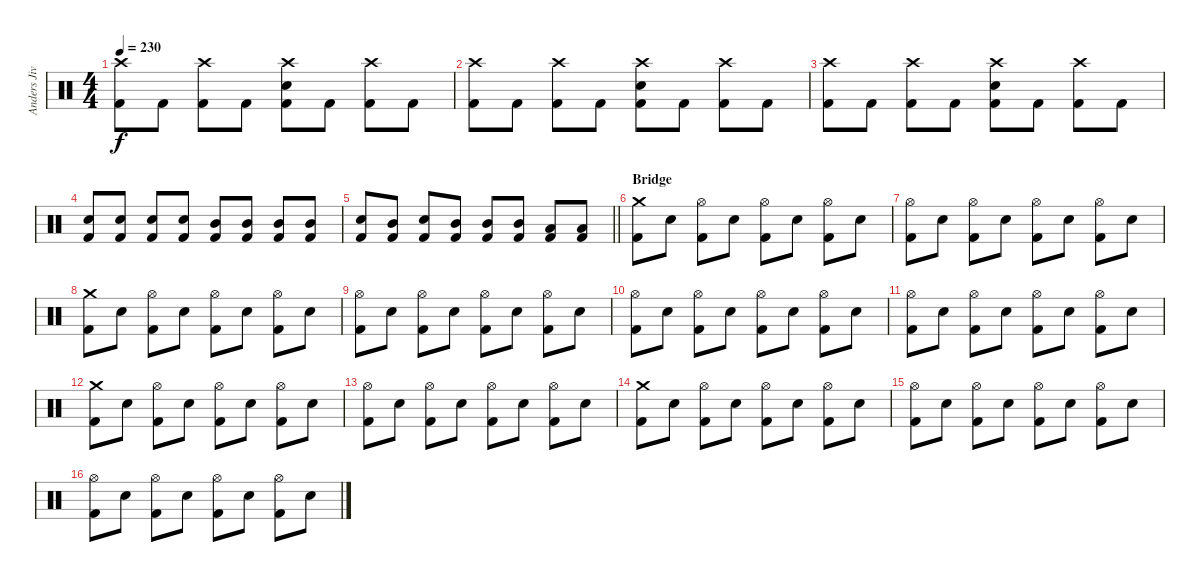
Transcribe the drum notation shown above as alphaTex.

\track ("Anders Jivarp" "Anders Jiv") {instrument percussion}
\staff {score}
\articulation defaults
\ts (4 4)
\tempo 230
\clef neutral
\ks c
("Crash high (hit)" "Kick (hit) 2").8{dy f} "Kick (hit) 2".8 ("Crash high (hit)" "Kick (hit) 2").8 "Kick (hit) 2".8 ("Crash high (hit)" "Electric Snare (hit)" "Kick (hit) 2").8 "Kick (hit) 2".8 ("Crash high (hit)" "Kick (hit) 2").8 "Kick (hit) 2".8 |
("Crash high (hit)" "Kick (hit) 2").8 "Kick (hit) 2".8 ("Crash high (hit)" "Kick (hit) 2").8 "Kick (hit) 2".8 ("Crash high (hit)" "Electric Snare (hit)" "Kick (hit) 2").8 "Kick (hit) 2".8 ("Crash high (hit)" "Kick (hit) 2").8 "Kick (hit) 2".8 |
("Crash high (hit)" "Kick (hit) 2").8 "Kick (hit) 2".8 ("Crash high (hit)" "Kick (hit) 2").8 "Kick (hit) 2".8 ("Crash high (hit)" "Electric Snare (hit)" "Kick (hit) 2").8 "Kick (hit) 2".8 ("Crash high (hit)" "Kick (hit) 2").8 "Kick (hit) 2".8 |
("Kick (hit) 2" "Electric Snare (hit)").8 ("Kick (hit) 2" "Electric Snare (hit)").8 ("Kick (hit) 2" "Electric Snare (hit)").8 ("Kick (hit) 2" "Electric Snare (hit)").8 ("Kick (hit) 2" "Mid Tom (hit)").8 ("Kick (hit) 2" "Mid Tom (hit)").8 ("Kick (hit) 2" "Mid Tom (hit)").8 ("Kick (hit) 2" "Mid Tom (hit)").8 |
\barLineRight lightlight
("Kick (hit) 2" "Electric Snare (hit)").8 ("Kick (hit) 2" "Mid Tom (hit)").8 ("Kick (hit) 2" "Electric Snare (hit)").8 ("Kick (hit) 2" "Mid Tom (hit)").8 ("Kick (hit) 2" "Mid Tom (hit)").8 ("Kick (hit) 2" "Mid Tom (hit)").8 ("Kick (hit) 2" "Low Tom (hit)").8 ("Kick (hit) 2" "Low Tom (hit)").8 |
\section ("" "Bridge")
("Kick (hit) 2" "Crash medium (hit)").8 "Electric Snare (hit)".8 ("Kick (hit) 2" "Hi-Hat (open)").8 "Electric Snare (hit)".8 ("Kick (hit) 2" "Hi-Hat (open)").8 "Electric Snare (hit)".8 ("Kick (hit) 2" "Hi-Hat (open)").8 "Electric Snare (hit)".8 |
("Kick (hit) 2" "Hi-Hat (open)").8 "Electric Snare (hit)".8 ("Kick (hit) 2" "Hi-Hat (open)").8 "Electric Snare (hit)".8 ("Kick (hit) 2" "Hi-Hat (open)").8 "Electric Snare (hit)".8 ("Kick (hit) 2" "Hi-Hat (open)").8 "Electric Snare (hit)".8 |
("Kick (hit) 2" "Crash medium (hit)").8 "Electric Snare (hit)".8 ("Kick (hit) 2" "Hi-Hat (open)").8 "Electric Snare (hit)".8 ("Kick (hit) 2" "Hi-Hat (open)").8 "Electric Snare (hit)".8 ("Kick (hit) 2" "Hi-Hat (open)").8 "Electric Snare (hit)".8 |
("Kick (hit) 2" "Hi-Hat (open)").8 "Electric Snare (hit)".8 ("Kick (hit) 2" "Hi-Hat (open)").8 "Electric Snare (hit)".8 ("Kick (hit) 2" "Hi-Hat (open)").8 "Electric Snare (hit)".8 ("Kick (hit) 2" "Hi-Hat (open)").8 "Electric Snare (hit)".8 |
("Kick (hit) 2" "Hi-Hat (open)").8 "Electric Snare (hit)".8 ("Kick (hit) 2" "Hi-Hat (open)").8 "Electric Snare (hit)".8 ("Kick (hit) 2" "Hi-Hat (open)").8 "Electric Snare (hit)".8 ("Kick (hit) 2" "Hi-Hat (open)").8 "Electric Snare (hit)".8 |
("Kick (hit) 2" "Hi-Hat (open)").8 "Electric Snare (hit)".8 ("Kick (hit) 2" "Hi-Hat (open)").8 "Electric Snare (hit)".8 ("Kick (hit) 2" "Hi-Hat (open)").8 "Electric Snare (hit)".8 ("Kick (hit) 2" "Hi-Hat (open)").8 "Electric Snare (hit)".8 |
("Kick (hit) 2" "Crash medium (hit)").8 "Electric Snare (hit)".8 ("Kick (hit) 2" "Hi-Hat (open)").8 "Electric Snare (hit)".8 ("Kick (hit) 2" "Hi-Hat (open)").8 "Electric Snare (hit)".8 ("Kick (hit) 2" "Hi-Hat (open)").8 "Electric Snare (hit)".8 |
("Kick (hit) 2" "Hi-Hat (open)").8 "Electric Snare (hit)".8 ("Kick (hit) 2" "Hi-Hat (open)").8 "Electric Snare (hit)".8 ("Kick (hit) 2" "Hi-Hat (open)").8 "Electric Snare (hit)".8 ("Kick (hit) 2" "Hi-Hat (open)").8 "Electric Snare (hit)".8 |
("Kick (hit) 2" "Crash medium (hit)").8 "Electric Snare (hit)".8 ("Kick (hit) 2" "Hi-Hat (open)").8 "Electric Snare (hit)".8 ("Kick (hit) 2" "Hi-Hat (open)").8 "Electric Snare (hit)".8 ("Kick (hit) 2" "Hi-Hat (open)").8 "Electric Snare (hit)".8 |
("Kick (hit) 2" "Hi-Hat (open)").8 "Electric Snare (hit)".8 ("Kick (hit) 2" "Hi-Hat (open)").8 "Electric Snare (hit)".8 ("Kick (hit) 2" "Hi-Hat (open)").8 "Electric Snare (hit)".8 ("Kick (hit) 2" "Hi-Hat (open)").8 "Electric Snare (hit)".8 |
("Kick (hit) 2" "Hi-Hat (open)").8 "Electric Snare (hit)".8 ("Kick (hit) 2" "Hi-Hat (open)").8 "Electric Snare (hit)".8 ("Kick (hit) 2" "Hi-Hat (open)").8 "Electric Snare (hit)".8 ("Kick (hit) 2" "Hi-Hat (open)").8 "Electric Snare (hit)".8
